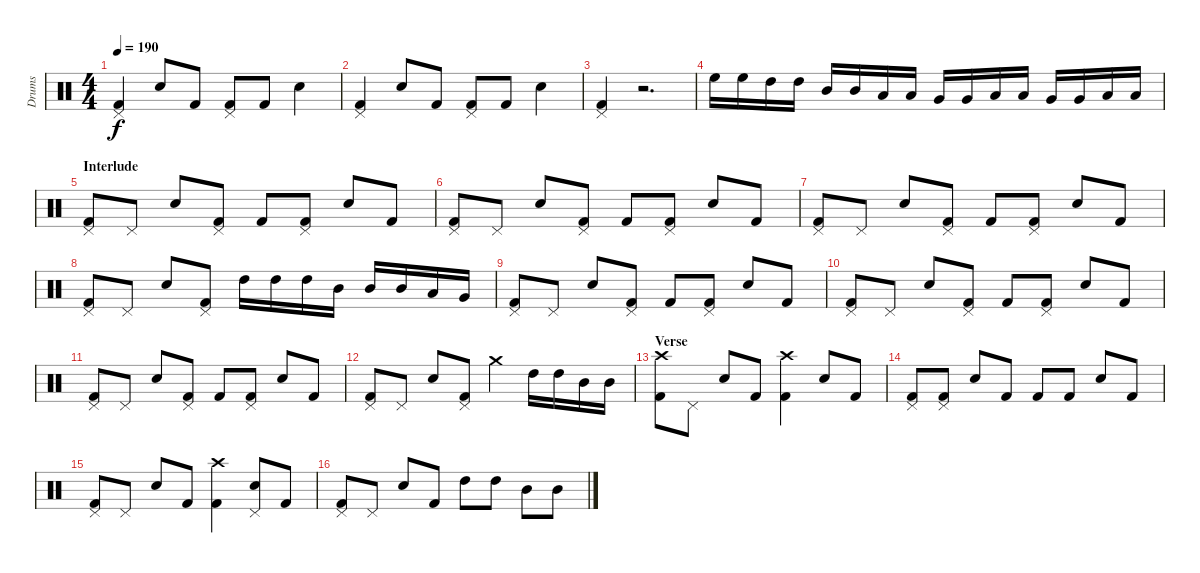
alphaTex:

\track ("Drums" "Drums") {instrument percussion}
\staff {score}
\articulation defaults
\ts (4 4)
\tempo 190
\clef neutral
\ks c
("Pedal Hi-Hat (hit)" "Kick (hit) 2").4{dy f} "Electric Snare (hit)".8 "Kick (hit) 2".8 ("Pedal Hi-Hat (hit)" "Kick (hit) 2").8 "Kick (hit) 2".8 "Electric Snare (hit)".4 |
("Pedal Hi-Hat (hit)" "Kick (hit) 2").4 "Electric Snare (hit)".8 "Kick (hit) 2".8 ("Pedal Hi-Hat (hit)" "Kick (hit) 2").8 "Kick (hit) 2".8 "Electric Snare (hit)".4 |
("Pedal Hi-Hat (hit)" "Kick (hit) 2").4 r.2{d} |
"High Floor Tom (hit)".16 "High Floor Tom (hit)".16 "High Tom (hit)".16 "High Tom (hit)".16 "Mid Tom (hit)".16 "Mid Tom (hit)".16 "Low Tom (hit)".16 "Low Tom (hit)".16 "Very Low Tom (hit)".16 "Very Low Tom (hit)".16 "Low Floor Tom (hit)".16 "Low Floor Tom (hit)".16 "Very Low Tom (hit)".16 "Very Low Tom (hit)".16 "Low Tom (hit)".16 "Low Tom (hit)".16 |
\section ("" "Interlude")
("Pedal Hi-Hat (hit)" "Kick (hit) 2").8 "Pedal Hi-Hat (hit)".8 "Electric Snare (hit)".8 ("Pedal Hi-Hat (hit)" "Kick (hit) 2").8 "Kick (hit) 2".8 ("Pedal Hi-Hat (hit)" "Kick (hit) 2").8 "Electric Snare (hit)".8 "Kick (hit) 2".8 |
("Pedal Hi-Hat (hit)" "Kick (hit) 2").8 "Pedal Hi-Hat (hit)".8 "Electric Snare (hit)".8 ("Pedal Hi-Hat (hit)" "Kick (hit) 2").8 "Kick (hit) 2".8 ("Pedal Hi-Hat (hit)" "Kick (hit) 2").8 "Electric Snare (hit)".8 "Kick (hit) 2".8 |
("Pedal Hi-Hat (hit)" "Kick (hit) 2").8 "Pedal Hi-Hat (hit)".8 "Electric Snare (hit)".8 ("Pedal Hi-Hat (hit)" "Kick (hit) 2").8 "Kick (hit) 2".8 ("Pedal Hi-Hat (hit)" "Kick (hit) 2").8 "Electric Snare (hit)".8 "Kick (hit) 2".8 |
("Pedal Hi-Hat (hit)" "Kick (hit) 2").8 "Pedal Hi-Hat (hit)".8 "Electric Snare (hit)".8 ("Pedal Hi-Hat (hit)" "Kick (hit) 2").8 "High Tom (hit)".16 "High Tom (hit)".16 "High Tom (hit)".16 "Mid Tom (hit)".16 "Mid Tom (hit)".16 "Mid Tom (hit)".16 "Low Tom (hit)".16 "Very Low Tom (hit)".16 |
("Pedal Hi-Hat (hit)" "Kick (hit) 2").8 "Pedal Hi-Hat (hit)".8 "Electric Snare (hit)".8 ("Pedal Hi-Hat (hit)" "Kick (hit) 2").8 "Kick (hit) 2".8 ("Pedal Hi-Hat (hit)" "Kick (hit) 2").8 "Electric Snare (hit)".8 "Kick (hit) 2".8 |
("Pedal Hi-Hat (hit)" "Kick (hit) 2").8 "Pedal Hi-Hat (hit)".8 "Electric Snare (hit)".8 ("Pedal Hi-Hat (hit)" "Kick (hit) 2").8 "Kick (hit) 2".8 ("Pedal Hi-Hat (hit)" "Kick (hit) 2").8 "Electric Snare (hit)".8 "Kick (hit) 2".8 |
("Pedal Hi-Hat (hit)" "Kick (hit) 2").8 "Pedal Hi-Hat (hit)".8 "Electric Snare (hit)".8 ("Pedal Hi-Hat (hit)" "Kick (hit) 2").8 "Kick (hit) 2".8 ("Pedal Hi-Hat (hit)" "Kick (hit) 2").8 "Electric Snare (hit)".8 "Kick (hit) 2".8 |
("Pedal Hi-Hat (hit)" "Kick (hit) 2").8 "Pedal Hi-Hat (hit)".8 "Electric Snare (hit)".8 ("Pedal Hi-Hat (hit)" "Kick (hit) 2").8 "Crash medium (hit)".4 "High Tom (hit)".16 "High Tom (hit)".16 "Mid Tom (hit)".16 "Mid Tom (hit)".16 |
\section ("" "Verse")
("Crash high (hit)" "Kick (hit) 2").8 "Pedal Hi-Hat (hit)".8 "Electric Snare (hit)".8 "Kick (hit) 2".8 ("Crash high (hit)" "Kick (hit) 2").4 "Electric Snare (hit)".8 "Kick (hit) 2".8 |
("Pedal Hi-Hat (hit)" "Kick (hit) 2").8 ("Pedal Hi-Hat (hit)" "Kick (hit) 2").8 "Electric Snare (hit)".8 "Kick (hit) 2".8 "Kick (hit) 2".8 "Kick (hit) 2".8 "Electric Snare (hit)".8 "Kick (hit) 2".8 |
("Pedal Hi-Hat (hit)" "Kick (hit) 2").8 "Pedal Hi-Hat (hit)".8 "Electric Snare (hit)".8 "Kick (hit) 2".8 ("Crash high (hit)" "Kick (hit) 2").4 ("Pedal Hi-Hat (hit)" "Electric Snare (hit)").8 "Kick (hit) 2".8 |
("Pedal Hi-Hat (hit)" "Kick (hit) 2").8 "Pedal Hi-Hat (hit)".8 "Electric Snare (hit)".8 "Kick (hit) 2".8 "High Tom (hit)".8 "High Tom (hit)".8 "Mid Tom (hit)".8 "Mid Tom (hit)".8
